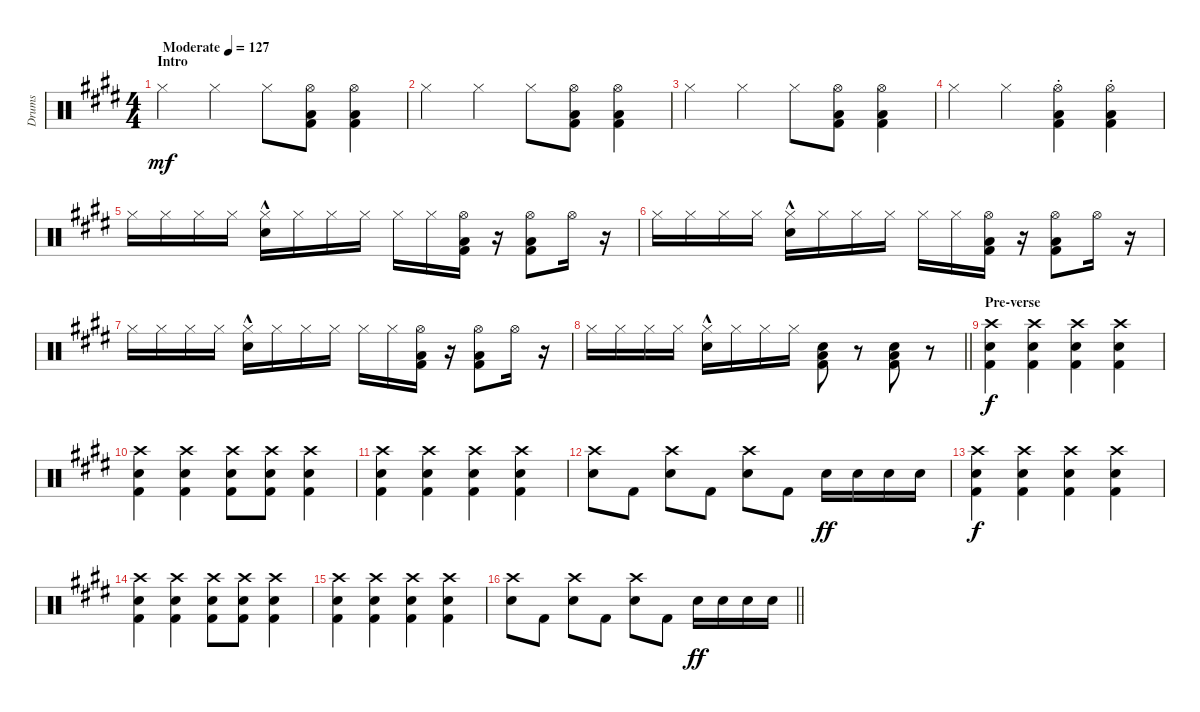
\track ("Drums" "Drums") {instrument percussion}
\staff {score}
\articulation defaults
\ts (4 4)
\section ("" "Intro")
\tempo (127 "Moderate")
\clef neutral
\ks e "Hi-Hat (closed)".4{dy mf} "Hi-Hat (closed)".4 "Hi-Hat (closed)".8
("Hi-Hat (open)" "Low Floor Tom (hit)" "Kick (hit) 2").8 ("Hi-Hat (open)" "Low Floor Tom (hit)" "Kick (hit) 2").4 |
"Hi-Hat (closed)".4 "Hi-Hat (closed)".4 "Hi-Hat (closed)".8 ("Hi-Hat (open)" "Low Floor Tom (hit)" "Kick (hit) 2").8 ("Hi-Hat (open)" "Low Floor Tom (hit)" "Kick (hit) 2").4 |
"Hi-Hat (closed)".4 "Hi-Hat (closed)".4 "Hi-Hat (closed)".8 ("Hi-Hat (open)" "Low Floor Tom (hit)" "Kick (hit) 2").8 ("Hi-Hat (open)" "Low Floor Tom (hit)" "Kick (hit) 2").4 |
"Hi-Hat (closed)".4 "Hi-Hat (closed)".4 ("Hi-Hat (open)" "Low Floor Tom (hit)" "Kick (hit) 2"{st}).4 ("Hi-Hat (open)" "Low Floor Tom (hit)" "Kick (hit) 2"{st}).4 |
"Hi-Hat (closed)".16 "Hi-Hat (closed)".16 "Hi-Hat (closed)".16 "Hi-Hat (closed)".16 ("Hi-Hat (closed)"{hac} "Electric Snare (hit)").16 "Hi-Hat (closed)".16 "Hi-Hat (closed)".16 "Hi-Hat (closed)".16 "Hi-Hat (closed)".16 "Hi-Hat (closed)".16 ("Hi-Hat (open)" "Low Floor Tom (hit)" "Kick (hit) 2").16 r.16 ("Hi-Hat (open)" "Low Floor Tom (hit)" "Kick (hit) 2").8 "Hi-Hat (open)".16 r.16 |
"Hi-Hat (closed)".16 "Hi-Hat (closed)".16 "Hi-Hat (closed)".16 "Hi-Hat (closed)".16 ("Hi-Hat (closed)"{hac} "Electric Snare (hit)").16 "Hi-Hat (closed)".16 "Hi-Hat (closed)".16 "Hi-Hat (closed)".16 "Hi-Hat (closed)".16 "Hi-Hat (closed)".16 ("Hi-Hat (open)" "Low Floor Tom (hit)" "Kick (hit) 2").16 r.16 ("Hi-Hat (open)" "Low Floor Tom (hit)" "Kick (hit) 2").8 "Hi-Hat (open)".16 r.16 |
"Hi-Hat (closed)".16 "Hi-Hat (closed)".16 "Hi-Hat (closed)".16 "Hi-Hat (closed)".16 ("Hi-Hat (closed)"{hac} "Electric Snare (hit)").16 "Hi-Hat (closed)".16 "Hi-Hat (closed)".16 "Hi-Hat (closed)".16 "Hi-Hat (closed)".16 "Hi-Hat (closed)".16 ("Hi-Hat (open)" "Low Floor Tom (hit)" "Kick (hit) 2").16 r.16 ("Hi-Hat (open)" "Low Floor Tom (hit)" "Kick (hit) 2").8 "Hi-Hat (open)".16 r.16 |
\barLineRight lightlight "Hi-Hat (closed)".16 "Hi-Hat (closed)".16 "Hi-Hat (closed)".16 "Hi-Hat (closed)".16
("Hi-Hat (closed)"{hac} "Electric Snare (hit)").16 "Hi-Hat (closed)".16 "Hi-Hat (closed)".16 "Hi-Hat (closed)".16 ("Electric Snare (hit)" "Low Floor Tom (hit)" "Kick (hit) 2").8 r.8 ("Electric Snare (hit)" "Low Floor Tom (hit)" "Kick (hit) 2").8 r.8 |
\section ("" "Pre-verse")
("Crash high (hit)" "Electric Snare (hit)" "Kick (hit) 2").4{dy f} ("Crash high (hit)" "Electric Snare (hit)" "Kick (hit) 2").4 ("Crash high (hit)" "Electric Snare (hit)" "Kick (hit) 2").4 ("Crash high (hit)" "Electric Snare (hit)" "Kick (hit) 2").4 |
("Crash high (hit)" "Electric Snare (hit)" "Kick (hit) 2").4 ("Crash high (hit)" "Electric Snare (hit)" "Kick (hit) 2").4 ("Crash high (hit)" "Electric Snare (hit)" "Kick (hit) 2").8 ("Crash high (hit)" "Electric Snare (hit)" "Kick (hit) 2").8 ("Crash high (hit)" "Electric Snare (hit)" "Kick (hit) 2").4 |
("Crash high (hit)" "Electric Snare (hit)" "Kick (hit) 2").4 ("Crash high (hit)" "Electric Snare (hit)" "Kick (hit) 2").4 ("Crash high (hit)" "Electric Snare (hit)" "Kick (hit) 2").4 ("Crash high (hit)" "Electric Snare (hit)" "Kick (hit) 2").4 |
("Crash high (hit)" "Electric Snare (hit)").8 "Kick (hit) 2".8 ("Crash high (hit)" "Electric Snare (hit)").8 "Kick (hit) 2".8 ("Crash high (hit)" "Electric Snare (hit)").8 "Kick (hit) 2".8 "Electric Snare (hit)".16{dy ff} "Electric Snare (hit)".16 "Electric Snare (hit)".16 "Electric Snare (hit)".16 |
("Crash high (hit)" "Electric Snare (hit)" "Kick (hit) 2").4{dy f} ("Crash high (hit)" "Electric Snare (hit)" "Kick (hit) 2").4 ("Crash high (hit)" "Electric Snare (hit)" "Kick (hit) 2").4 ("Crash high (hit)" "Electric Snare (hit)" "Kick (hit) 2").4 |
("Crash high (hit)" "Electric Snare (hit)" "Kick (hit) 2").4 ("Crash high (hit)" "Electric Snare (hit)" "Kick (hit) 2").4 ("Crash high (hit)" "Electric Snare (hit)" "Kick (hit) 2").8 ("Crash high (hit)" "Electric Snare (hit)" "Kick (hit) 2").8 ("Crash high (hit)" "Electric Snare (hit)" "Kick (hit) 2").4 |
("Crash high (hit)" "Electric Snare (hit)" "Kick (hit) 2").4 ("Crash high (hit)" "Electric Snare (hit)" "Kick (hit) 2").4 ("Crash high (hit)" "Electric Snare (hit)" "Kick (hit) 2").4 ("Crash high (hit)" "Electric Snare (hit)" "Kick (hit) 2").4 |
\barLineRight lightlight
("Crash high (hit)" "Electric Snare (hit)").8 "Kick (hit) 2".8 ("Crash high (hit)" "Electric Snare (hit)").8 "Kick (hit) 2".8 ("Crash high (hit)" "Electric Snare (hit)").8 "Kick (hit) 2".8 "Electric Snare (hit)".16{dy ff} "Electric Snare (hit)".16 "Electric Snare (hit)".16 "Electric Snare (hit)".16
